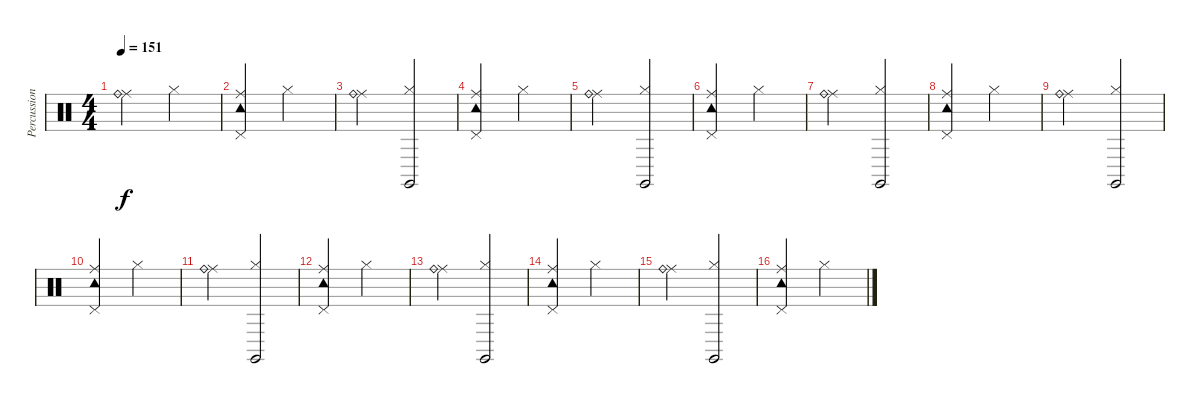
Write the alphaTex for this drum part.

\track ("Percussion" "Percussion") {instrument percussion}
\staff {score}
\articulation defaults
\ts (4 4)
\tempo 151
\clef neutral
\ks c
("Ride (middle)" "Ride (bell)").2{dy f} "Hi-Hat (closed)".2 |
("Ride (middle)" "Tambourine (hit)" "Pedal Hi-Hat (hit)").2 "Hi-Hat (closed)".2 |
("Ride (middle)" "Ride (bell)").2 ("Hi-Hat (closed)" "Claves (hit)").2 |
("Ride (middle)" "Tambourine (hit)" "Pedal Hi-Hat (hit)").2 "Hi-Hat (closed)".2 |
("Ride (middle)" "Ride (bell)").2 ("Hi-Hat (closed)" "Claves (hit)").2 |
("Ride (middle)" "Tambourine (hit)" "Pedal Hi-Hat (hit)").2 "Hi-Hat (closed)".2 |
("Ride (middle)" "Ride (bell)").2 ("Hi-Hat (closed)" "Claves (hit)").2 |
("Ride (middle)" "Tambourine (hit)" "Pedal Hi-Hat (hit)").2 "Hi-Hat (closed)".2 |
("Ride (middle)" "Ride (bell)").2 ("Hi-Hat (closed)" "Claves (hit)").2 |
("Ride (middle)" "Tambourine (hit)" "Pedal Hi-Hat (hit)").2 "Hi-Hat (closed)".2 |
("Ride (middle)" "Ride (bell)").2 ("Hi-Hat (closed)" "Claves (hit)").2 |
("Ride (middle)" "Tambourine (hit)" "Pedal Hi-Hat (hit)").2 "Hi-Hat (closed)".2 |
("Ride (middle)" "Ride (bell)").2 ("Hi-Hat (closed)" "Claves (hit)").2 |
("Ride (middle)" "Tambourine (hit)" "Pedal Hi-Hat (hit)").2 "Hi-Hat (closed)".2 |
("Ride (middle)" "Ride (bell)").2 ("Hi-Hat (closed)" "Claves (hit)").2 |
("Ride (middle)" "Tambourine (hit)" "Pedal Hi-Hat (hit)").2 "Hi-Hat (closed)".2
